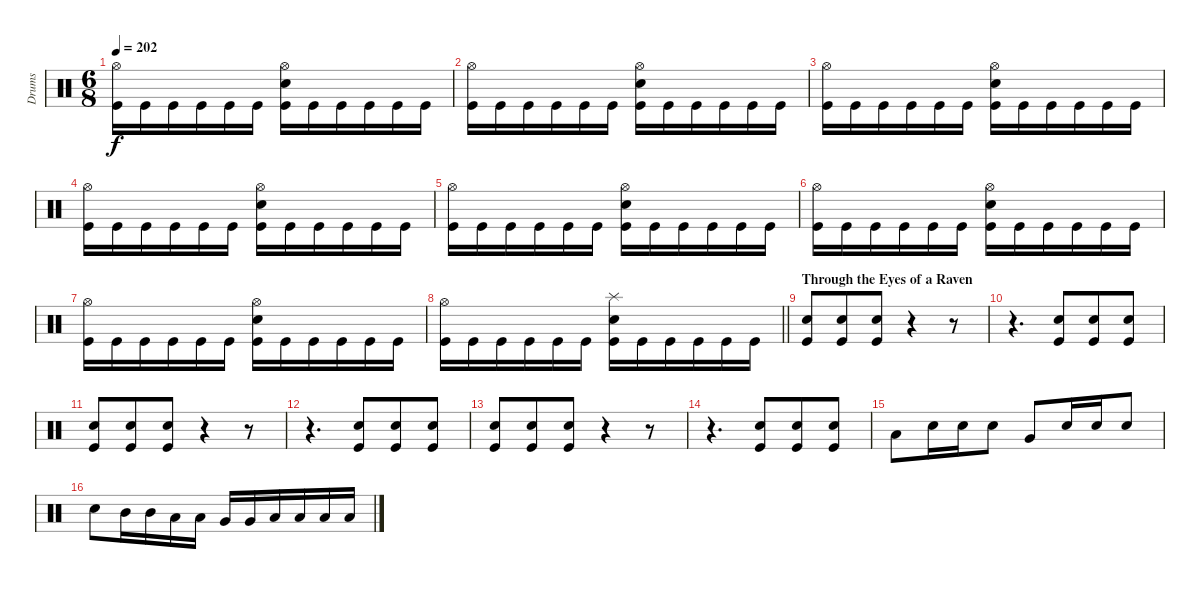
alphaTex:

\track ("Drums" "Drums") {instrument percussion}
\staff {score}
\articulation defaults
\ts (6 8)
\tempo 202
\clef neutral
\ks c
("Hi-Hat (open)" "Kick (hit)").16{dy f} "Kick (hit)".16 "Kick (hit)".16 "Kick (hit)".16 "Kick (hit)".16 "Kick (hit)".16 ("Hi-Hat (open)" "Electric Snare (hit)" "Kick (hit)").16 "Kick (hit)".16 "Kick (hit)".16 "Kick (hit)".16 "Kick (hit)".16 "Kick (hit)".16 |
("Hi-Hat (open)" "Kick (hit)").16 "Kick (hit)".16 "Kick (hit)".16 "Kick (hit)".16 "Kick (hit)".16 "Kick (hit)".16 ("Hi-Hat (open)" "Electric Snare (hit)" "Kick (hit)").16 "Kick (hit)".16 "Kick (hit)".16 "Kick (hit)".16 "Kick (hit)".16 "Kick (hit)".16 |
("Hi-Hat (open)" "Kick (hit)").16 "Kick (hit)".16 "Kick (hit)".16 "Kick (hit)".16 "Kick (hit)".16 "Kick (hit)".16 ("Hi-Hat (open)" "Electric Snare (hit)" "Kick (hit)").16 "Kick (hit)".16 "Kick (hit)".16 "Kick (hit)".16 "Kick (hit)".16 "Kick (hit)".16 |
("Hi-Hat (open)" "Kick (hit)").16 "Kick (hit)".16 "Kick (hit)".16 "Kick (hit)".16 "Kick (hit)".16 "Kick (hit)".16 ("Hi-Hat (open)" "Electric Snare (hit)" "Kick (hit)").16 "Kick (hit)".16 "Kick (hit)".16 "Kick (hit)".16 "Kick (hit)".16 "Kick (hit)".16 |
("Hi-Hat (open)" "Kick (hit)").16 "Kick (hit)".16 "Kick (hit)".16 "Kick (hit)".16 "Kick (hit)".16 "Kick (hit)".16 ("Hi-Hat (open)" "Electric Snare (hit)" "Kick (hit)").16 "Kick (hit)".16 "Kick (hit)".16 "Kick (hit)".16 "Kick (hit)".16 "Kick (hit)".16 |
("Hi-Hat (open)" "Kick (hit)").16 "Kick (hit)".16 "Kick (hit)".16 "Kick (hit)".16 "Kick (hit)".16 "Kick (hit)".16 ("Hi-Hat (open)" "Electric Snare (hit)" "Kick (hit)").16 "Kick (hit)".16 "Kick (hit)".16 "Kick (hit)".16 "Kick (hit)".16 "Kick (hit)".16 |
("Hi-Hat (open)" "Kick (hit)").16 "Kick (hit)".16 "Kick (hit)".16 "Kick (hit)".16 "Kick (hit)".16 "Kick (hit)".16 ("Hi-Hat (open)" "Electric Snare (hit)" "Kick (hit)").16 "Kick (hit)".16 "Kick (hit)".16 "Kick (hit)".16 "Kick (hit)".16 "Kick (hit)".16 |
\barLineRight lightlight
("Hi-Hat (open)" "Kick (hit)").16 "Kick (hit)".16 "Kick (hit)".16 "Kick (hit)".16 "Kick (hit)".16 "Kick (hit)".16 ("Splash (hit)" "Electric Snare (hit)" "Kick (hit)").16 "Kick (hit)".16 "Kick (hit)".16 "Kick (hit)".16 "Kick (hit)".16 "Kick (hit)".16 |
\section ("" "Through the Eyes of a Raven")
("Electric Snare (hit)" "Kick (hit)").8 ("Electric Snare (hit)" "Kick (hit)").8 ("Electric Snare (hit)" "Kick (hit)").8 r.4 r.8 |
r.4{d} ("Electric Snare (hit)" "Kick (hit)").8 ("Electric Snare (hit)" "Kick (hit)").8 ("Electric Snare (hit)" "Kick (hit)").8 |
("Electric Snare (hit)" "Kick (hit)").8 ("Electric Snare (hit)" "Kick (hit)").8 ("Electric Snare (hit)" "Kick (hit)").8 r.4 r.8 |
r.4{d} ("Electric Snare (hit)" "Kick (hit)").8 ("Electric Snare (hit)" "Kick (hit)").8 ("Electric Snare (hit)" "Kick (hit)").8 |
("Electric Snare (hit)" "Kick (hit)").8 ("Electric Snare (hit)" "Kick (hit)").8 ("Electric Snare (hit)" "Kick (hit)").8 r.4 r.8 |
r.4{d} ("Electric Snare (hit)" "Kick (hit)").8 ("Electric Snare (hit)" "Kick (hit)").8 ("Electric Snare (hit)" "Kick (hit)").8 |
"Low Floor Tom (hit)".8 "Electric Snare (hit)".16 "Electric Snare (hit)".16 "Electric Snare (hit)".8 "Very Low Tom (hit)".8 "Electric Snare (hit)".16 "Electric Snare (hit)".16 "Electric Snare (hit)".8 |
"Electric Snare (hit)".8 "Mid Tom (hit)".16 "Mid Tom (hit)".16 "Low Tom (hit)".16 "Low Tom (hit)".16 "Very Low Tom (hit)".16 "Very Low Tom (hit)".16 "Low Floor Tom (hit)".16 "Low Floor Tom (hit)".16 "Low Floor Tom (hit)".16 "Low Floor Tom (hit)".16
